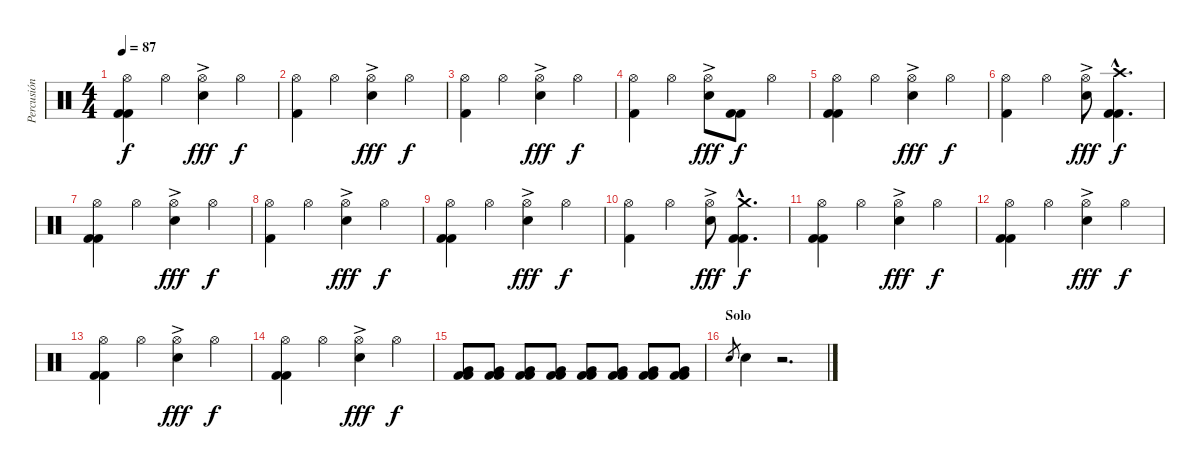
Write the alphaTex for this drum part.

\track ("Percusión" "Percusión") {instrument percussion}
\staff {score}
\articulation defaults
\ts (4 4)
\tempo 87
\clef neutral
\ks c
("Hi-Hat (open)" "Kick (hit) 2" "Kick (hit) 2").4{dy f} "Hi-Hat (open)".4 ("Hi-Hat (open)"{ac} "Snare (hit) 2").4{dy fff} "Hi-Hat (open)".4{dy f} |
("Hi-Hat (open)" "Kick (hit) 2").4 "Hi-Hat (open)".4 ("Hi-Hat (open)" "Snare (hit) 2"{ac}).4{dy fff} "Hi-Hat (open)".4{dy f} |
("Hi-Hat (open)" "Kick (hit) 2").4 "Hi-Hat (open)".4 ("Hi-Hat (open)" "Snare (hit) 2"{ac}).4{dy fff} "Hi-Hat (open)".4{dy f} |
("Hi-Hat (open)" "Kick (hit) 2").4 "Hi-Hat (open)".4 ("Hi-Hat (open)" "Snare (hit) 2"{ac}).8{dy fff} ("Kick (hit) 2" "Kick (hit) 2").8{dy f} "Hi-Hat (open)".4 |
("Hi-Hat (open)" "Kick (hit) 2" "Kick (hit) 2").4 "Hi-Hat (open)".4 ("Hi-Hat (open)"{ac} "Snare (hit) 2").4{dy fff} "Hi-Hat (open)".4{dy f} |
("Hi-Hat (open)" "Kick (hit) 2").4 "Hi-Hat (open)".4 ("Hi-Hat (open)" "Snare (hit) 2"{ac}).8{dy fff} ("Crash high (hit)"{hac} "Kick (hit) 2"{hac} "Kick (hit) 2"{hac}).4{d dy f} |
("Hi-Hat (open)" "Kick (hit) 2" "Kick (hit) 2").4 "Hi-Hat (open)".4 ("Hi-Hat (open)"{ac} "Snare (hit) 2").4{dy fff} "Hi-Hat (open)".4{dy f} |
("Hi-Hat (open)" "Kick (hit) 2").4 "Hi-Hat (open)".4 ("Hi-Hat (open)" "Snare (hit) 2"{ac}).4{dy fff} "Hi-Hat (open)".4{dy f} |
("Hi-Hat (open)" "Kick (hit) 2" "Kick (hit) 2").4 "Hi-Hat (open)".4 ("Hi-Hat (open)"{ac} "Snare (hit) 2").4{dy fff} "Hi-Hat (open)".4{dy f} |
("Hi-Hat (open)" "Kick (hit) 2").4 "Hi-Hat (open)".4 ("Hi-Hat (open)" "Snare (hit) 2"{ac}).8{dy fff} ("Crash medium (hit)"{hac} "Kick (hit) 2"{hac} "Kick (hit) 2"{hac}).4{d dy f} |
("Hi-Hat (open)" "Kick (hit) 2" "Kick (hit) 2").4 "Hi-Hat (open)".4 ("Hi-Hat (open)"{ac} "Snare (hit) 2").4{dy fff} "Hi-Hat (open)".4{dy f} |
("Hi-Hat (open)" "Kick (hit) 2" "Kick (hit) 2").4 "Hi-Hat (open)".4 ("Hi-Hat (open)"{ac} "Snare (hit) 2").4{dy fff} "Hi-Hat (open)".4{dy f} |
("Hi-Hat (open)" "Kick (hit) 2" "Kick (hit) 2").4 "Hi-Hat (open)".4 ("Hi-Hat (open)"{ac} "Snare (hit) 2").4{dy fff} "Hi-Hat (open)".4{dy f} |
("Hi-Hat (open)" "Kick (hit) 2" "Kick (hit) 2").4 "Hi-Hat (open)".4 ("Hi-Hat (open)"{ac} "Snare (hit) 2").4{dy fff} "Hi-Hat (open)".4{dy f} |
("Very Low Tom (hit)" "Kick (hit) 2" "Kick (hit) 2").8 ("Very Low Tom (hit)" "Kick (hit) 2" "Kick (hit) 2").8 ("Very Low Tom (hit)" "Kick (hit) 2" "Kick (hit) 2").8 ("Very Low Tom (hit)" "Kick (hit) 2" "Kick (hit) 2").8 ("Very Low Tom (hit)" "Kick (hit) 2" "Kick (hit) 2").8 ("Very Low Tom (hit)" "Kick (hit) 2" "Kick (hit) 2").8 ("Very Low Tom (hit)" "Kick (hit) 2" "Kick (hit) 2").8 ("Very Low Tom (hit)" "Kick (hit) 2" "Kick (hit) 2").8 |
\section ("" "Solo")
"Snare (hit) 2".8{gr} "Snare (hit) 2".4 r.2{d}
